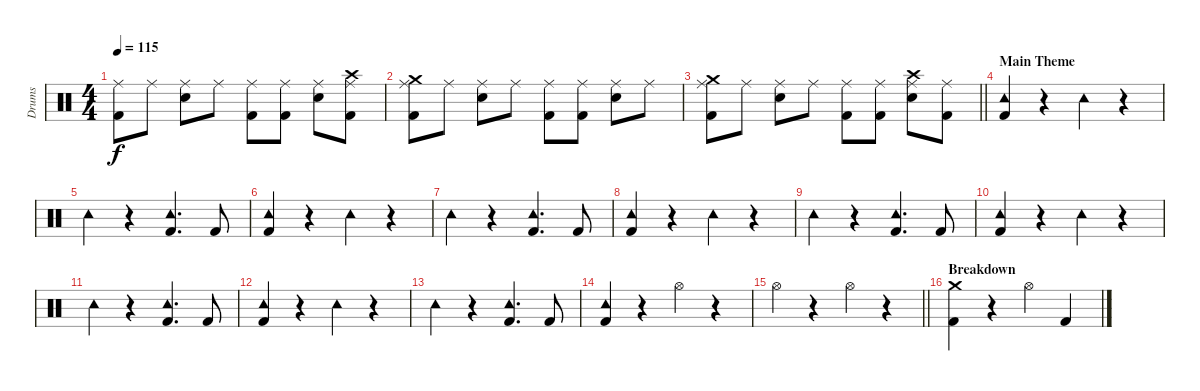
\track ("Drums" "Drums") {instrument percussion}
\staff {score}
\articulation defaults
\ts (4 4)
\tempo 115
\clef neutral
\ks c
("Ride (middle)" "Kick (hit) 2").8{dy f} "Ride (middle)".8 ("Ride (middle)" "Snare (hit) 2").8 "Ride (middle)".8 ("Ride (middle)" "Kick (hit) 2").8 ("Ride (middle)" "Kick (hit) 2").8 ("Ride (middle)" "Snare (hit) 2").8 ("Crash high (hit)" "Ride (middle)" "Kick (hit) 2").8 |
("Crash medium (hit)" "Ride (middle)" "Kick (hit) 2").8 "Ride (middle)".8 ("Ride (middle)" "Snare (hit) 2").8 "Ride (middle)".8 ("Ride (middle)" "Kick (hit) 2").8 ("Ride (middle)" "Kick (hit) 2").8 ("Ride (middle)" "Snare (hit) 2").8 "Ride (middle)".8 |
\barLineRight lightlight
("Crash medium (hit)" "Ride (middle)" "Kick (hit) 2").8 "Ride (middle)".8 ("Ride (middle)" "Snare (hit) 2").8 "Ride (middle)".8 ("Ride (middle)" "Kick (hit) 2").8 ("Ride (middle)" "Kick (hit) 2").8 ("Crash high (hit)" "Ride (middle)" "Snare (hit) 2").8 ("Ride (middle)" "Kick (hit) 2").8 |
\section ("" "Main Theme")
("Tambourine (hit)" "Kick (hit) 2").4 r.4 "Tambourine (hit)".4 r.4 |
"Tambourine (hit)".4 r.4 ("Tambourine (hit)" "Kick (hit) 2").4{d} "Kick (hit) 2".8 |
("Tambourine (hit)" "Kick (hit) 2").4 r.4 "Tambourine (hit)".4 r.4 |
"Tambourine (hit)".4 r.4 ("Tambourine (hit)" "Kick (hit) 2").4{d} "Kick (hit) 2".8 |
("Tambourine (hit)" "Kick (hit) 2").4 r.4 "Tambourine (hit)".4 r.4 |
"Tambourine (hit)".4 r.4 ("Tambourine (hit)" "Kick (hit) 2").4{d} "Kick (hit) 2".8 |
("Tambourine (hit)" "Kick (hit) 2").4 r.4 "Tambourine (hit)".4 r.4 |
"Tambourine (hit)".4 r.4 ("Tambourine (hit)" "Kick (hit) 2").4{d} "Kick (hit) 2".8 |
("Tambourine (hit)" "Kick (hit) 2").4 r.4 "Tambourine (hit)".4 r.4 |
"Tambourine (hit)".4 r.4 ("Tambourine (hit)" "Kick (hit) 2").4{d} "Kick (hit) 2".8 |
("Tambourine (hit)" "Kick (hit) 2").4 r.4 "Hi-Hat (open)".4 r.4 |
\barLineRight lightlight "Hi-Hat (open)".4
r.4 "Hi-Hat (open)".4 r.4 |
\section ("" "Breakdown")
("Crash medium (hit)" "Kick (hit) 2").4 r.4 "Hi-Hat (open)".4 "Kick (hit) 2".4
